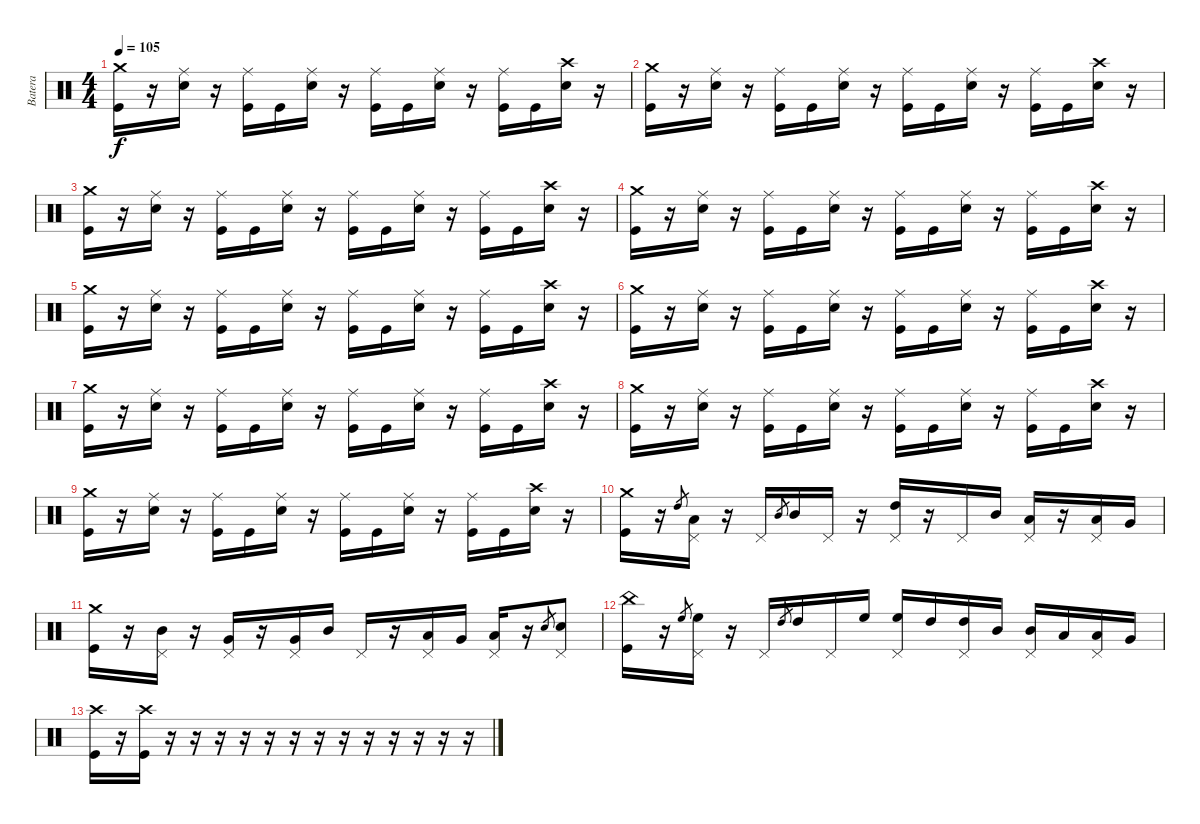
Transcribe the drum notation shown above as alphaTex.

\track ("Batera" "Batera") {instrument percussion}
\staff {score}
\articulation defaults
\ts (4 4)
\tempo 105
\clef neutral
\ks c
("Crash medium (hit)" "Kick (hit)").16{dy f} r.16 ("Ride (middle)" "Snare (hit) 2").16 r.16 ("Ride (middle)" "Kick (hit)").16 "Kick (hit)".16 ("Ride (middle)" "Snare (hit) 2").16 r.16 ("Ride (middle)" "Kick (hit)").16 "Kick (hit)".16 ("Ride (middle)" "Snare (hit) 2").16 r.16 ("Ride (middle)" "Kick (hit)").16 "Kick (hit)".16 ("Crash high (hit)" "Snare (hit) 2").16 r.16 |
("Crash medium (hit)" "Kick (hit)").16 r.16 ("Ride (middle)" "Snare (hit) 2").16 r.16 ("Ride (middle)" "Kick (hit)").16 "Kick (hit)".16 ("Ride (middle)" "Snare (hit) 2").16 r.16 ("Ride (middle)" "Kick (hit)").16 "Kick (hit)".16 ("Ride (middle)" "Snare (hit) 2").16 r.16 ("Ride (middle)" "Kick (hit)").16 "Kick (hit)".16 ("Crash high (hit)" "Snare (hit) 2").16 r.16 |
("Crash medium (hit)" "Kick (hit)").16 r.16 ("Ride (middle)" "Snare (hit) 2").16 r.16 ("Ride (middle)" "Kick (hit)").16 "Kick (hit)".16 ("Ride (middle)" "Snare (hit) 2").16 r.16 ("Ride (middle)" "Kick (hit)").16 "Kick (hit)".16 ("Ride (middle)" "Snare (hit) 2").16 r.16 ("Ride (middle)" "Kick (hit)").16 "Kick (hit)".16 ("Crash high (hit)" "Snare (hit) 2").16 r.16 |
("Crash medium (hit)" "Kick (hit)").16 r.16 ("Ride (middle)" "Snare (hit) 2").16 r.16 ("Ride (middle)" "Kick (hit)").16 "Kick (hit)".16 ("Ride (middle)" "Snare (hit) 2").16 r.16 ("Ride (middle)" "Kick (hit)").16 "Kick (hit)".16 ("Ride (middle)" "Snare (hit) 2").16 r.16 ("Ride (middle)" "Kick (hit)").16 "Kick (hit)".16 ("Crash high (hit)" "Snare (hit) 2").16 r.16 |
("Crash medium (hit)" "Kick (hit)").16 r.16 ("Ride (middle)" "Snare (hit) 2").16 r.16 ("Ride (middle)" "Kick (hit)").16 "Kick (hit)".16 ("Ride (middle)" "Snare (hit) 2").16 r.16 ("Ride (middle)" "Kick (hit)").16 "Kick (hit)".16 ("Ride (middle)" "Snare (hit) 2").16 r.16 ("Ride (middle)" "Kick (hit)").16 "Kick (hit)".16 ("Crash high (hit)" "Snare (hit) 2").16 r.16 |
("Crash medium (hit)" "Kick (hit)").16 r.16 ("Ride (middle)" "Snare (hit) 2").16 r.16 ("Ride (middle)" "Kick (hit)").16 "Kick (hit)".16 ("Ride (middle)" "Snare (hit) 2").16 r.16 ("Ride (middle)" "Kick (hit)").16 "Kick (hit)".16 ("Ride (middle)" "Snare (hit) 2").16 r.16 ("Ride (middle)" "Kick (hit)").16 "Kick (hit)".16 ("Crash high (hit)" "Snare (hit) 2").16 r.16 |
("Crash medium (hit)" "Kick (hit)").16 r.16 ("Ride (middle)" "Snare (hit) 2").16 r.16 ("Ride (middle)" "Kick (hit)").16 "Kick (hit)".16 ("Ride (middle)" "Snare (hit) 2").16 r.16 ("Ride (middle)" "Kick (hit)").16 "Kick (hit)".16 ("Ride (middle)" "Snare (hit) 2").16 r.16 ("Ride (middle)" "Kick (hit)").16 "Kick (hit)".16 ("Crash high (hit)" "Snare (hit) 2").16 r.16 |
("Crash medium (hit)" "Kick (hit)").16 r.16 ("Ride (middle)" "Snare (hit) 2").16 r.16 ("Ride (middle)" "Kick (hit)").16 "Kick (hit)".16 ("Ride (middle)" "Snare (hit) 2").16 r.16 ("Ride (middle)" "Kick (hit)").16 "Kick (hit)".16 ("Ride (middle)" "Snare (hit) 2").16 r.16 ("Ride (middle)" "Kick (hit)").16 "Kick (hit)".16 ("Crash high (hit)" "Snare (hit) 2").16 r.16 |
("Crash medium (hit)" "Kick (hit)").16 r.16 ("Ride (middle)" "Snare (hit) 2").16 r.16 ("Ride (middle)" "Kick (hit)").16 "Kick (hit)".16 ("Ride (middle)" "Snare (hit) 2").16 r.16 ("Ride (middle)" "Kick (hit)").16 "Kick (hit)".16 ("Ride (middle)" "Snare (hit) 2").16 r.16 ("Ride (middle)" "Kick (hit)").16 "Kick (hit)".16 ("Crash high (hit)" "Snare (hit) 2").16 r.16 |
("Crash medium (hit)" "Kick (hit)").16 r.16 "High Tom (hit)".8{gr} ("Pedal Hi-Hat (hit)" "Low Tom (hit)").16 r.16 "Pedal Hi-Hat (hit)".16 "Mid Tom (hit)".8{gr} "Mid Tom (hit)".16 "Pedal Hi-Hat (hit)".16 r.16 ("Pedal Hi-Hat (hit)" "High Tom (hit)").16 r.16 "Pedal Hi-Hat (hit)".16 "Mid Tom (hit)".16 ("Pedal Hi-Hat (hit)" "Low Tom (hit)").16 r.16 ("Pedal Hi-Hat (hit)" "Low Tom (hit)").16 "Very Low Tom (hit)".16 |
("Crash medium (hit)" "Kick (hit)").16 r.16 ("Pedal Hi-Hat (hit)" "Mid Tom (hit)").16 r.16 ("Pedal Hi-Hat (hit)" "Very Low Tom (hit)").16 r.16 ("Pedal Hi-Hat (hit)" "Very Low Tom (hit)").16 "Mid Tom (hit)".16 "Pedal Hi-Hat (hit)".16 r.16 ("Pedal Hi-Hat (hit)" "Low Tom (hit)").16 "Very Low Tom (hit)".16 ("Pedal Hi-Hat (hit)" "Low Tom (hit)").16 r.16 "Snare (hit) 2".8{gr} ("Pedal Hi-Hat (hit)" "Snare (hit) 2").8 |
("China (hit)" "Kick (hit)").16 r.16 "High Floor Tom (hit)".8{gr} ("Pedal Hi-Hat (hit)" "High Floor Tom (hit)").16 r.16 "Pedal Hi-Hat (hit)".16 "High Tom (hit)".8{gr} "High Tom (hit)".16 "Pedal Hi-Hat (hit)".16 "High Floor Tom (hit)".16 ("Pedal Hi-Hat (hit)" "High Floor Tom (hit)").16 "High Tom (hit)".16 ("Pedal Hi-Hat (hit)" "High Tom (hit)").16 "Mid Tom (hit)".16 ("Pedal Hi-Hat (hit)" "Mid Tom (hit)").16 "Low Tom (hit)".16 ("Pedal Hi-Hat (hit)" "Low Tom (hit)").16 "Very Low Tom (hit)".16 |
("Crash high (hit)" "Kick (hit)").16 r.16 ("Crash high (hit)" "Kick (hit)").16 r.16 r.16 r.16 r.16 r.16 r.16 r.16 r.16 r.16 r.16 r.16 r.16 r.16
